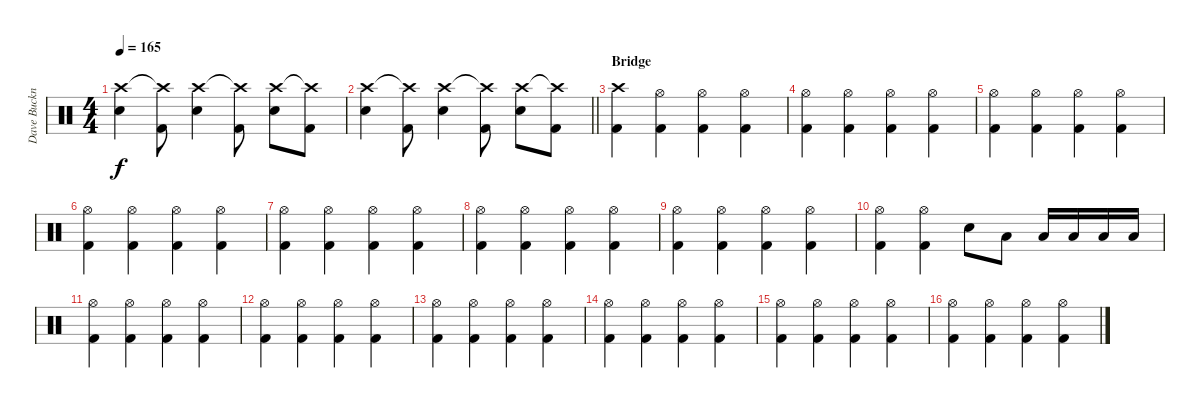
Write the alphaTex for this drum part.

\track ("Dave Buckner " "Dave Buckn") {instrument percussion}
\staff {score}
\articulation defaults
\ts (4 4)
\tempo 165
\clef neutral
\ks c
("Crash high (hit)" "Snare (hit) 2").4{dy f} ("Crash high (hit)"{t} "Kick (hit) 2").8 ("Crash high (hit)" "Snare (hit) 2").4 ("Crash high (hit)"{t} "Kick (hit) 2").8 ("Crash high (hit)" "Snare (hit) 2").8 ("Crash high (hit)"{t} "Kick (hit) 2").8 |
\barLineRight lightlight
("Crash high (hit)" "Snare (hit) 2").4 ("Crash high (hit)"{t} "Kick (hit) 2").8 ("Crash high (hit)" "Snare (hit) 2").4 ("Crash high (hit)"{t} "Kick (hit) 2").8 ("Crash high (hit)" "Snare (hit) 2").8 ("Crash high (hit)"{t} "Kick (hit) 2").8 |
\section ("" "Bridge")
("Crash high (hit)" "Kick (hit) 2").4 ("Hi-Hat (open)" "Kick (hit) 2").4 ("Hi-Hat (open)" "Kick (hit) 2").4 ("Hi-Hat (open)" "Kick (hit) 2").4 |
("Hi-Hat (open)" "Kick (hit) 2").4 ("Hi-Hat (open)" "Kick (hit) 2").4 ("Hi-Hat (open)" "Kick (hit) 2").4 ("Hi-Hat (open)" "Kick (hit) 2").4 |
("Hi-Hat (open)" "Kick (hit) 2").4 ("Hi-Hat (open)" "Kick (hit) 2").4 ("Hi-Hat (open)" "Kick (hit) 2").4 ("Hi-Hat (open)" "Kick (hit) 2").4 |
("Hi-Hat (open)" "Kick (hit) 2").4 ("Hi-Hat (open)" "Kick (hit) 2").4 ("Hi-Hat (open)" "Kick (hit) 2").4 ("Hi-Hat (open)" "Kick (hit) 2").4 |
("Hi-Hat (open)" "Kick (hit) 2").4 ("Hi-Hat (open)" "Kick (hit) 2").4 ("Hi-Hat (open)" "Kick (hit) 2").4 ("Hi-Hat (open)" "Kick (hit) 2").4 |
("Hi-Hat (open)" "Kick (hit) 2").4 ("Hi-Hat (open)" "Kick (hit) 2").4 ("Hi-Hat (open)" "Kick (hit) 2").4 ("Hi-Hat (open)" "Kick (hit) 2").4 |
("Hi-Hat (open)" "Kick (hit) 2").4 ("Hi-Hat (open)" "Kick (hit) 2").4 ("Hi-Hat (open)" "Kick (hit) 2").4 ("Hi-Hat (open)" "Kick (hit) 2").4 |
("Hi-Hat (open)" "Kick (hit) 2").4 ("Hi-Hat (open)" "Kick (hit) 2").4 "Snare (hit) 2".8 "Low Tom (hit)".8 "Low Tom (hit)".16 "Low Tom (hit)".16 "Low Tom (hit)".16 "Low Tom (hit)".16 |
("Hi-Hat (open)" "Kick (hit) 2").4 ("Hi-Hat (open)" "Kick (hit) 2").4 ("Hi-Hat (open)" "Kick (hit) 2").4 ("Hi-Hat (open)" "Kick (hit) 2").4 |
("Hi-Hat (open)" "Kick (hit) 2").4 ("Hi-Hat (open)" "Kick (hit) 2").4 ("Hi-Hat (open)" "Kick (hit) 2").4 ("Hi-Hat (open)" "Kick (hit) 2").4 |
("Hi-Hat (open)" "Kick (hit) 2").4 ("Hi-Hat (open)" "Kick (hit) 2").4 ("Hi-Hat (open)" "Kick (hit) 2").4 ("Hi-Hat (open)" "Kick (hit) 2").4 |
("Hi-Hat (open)" "Kick (hit) 2").4 ("Hi-Hat (open)" "Kick (hit) 2").4 ("Hi-Hat (open)" "Kick (hit) 2").4 ("Hi-Hat (open)" "Kick (hit) 2").4 |
("Hi-Hat (open)" "Kick (hit) 2").4 ("Hi-Hat (open)" "Kick (hit) 2").4 ("Hi-Hat (open)" "Kick (hit) 2").4 ("Hi-Hat (open)" "Kick (hit) 2").4 |
("Hi-Hat (open)" "Kick (hit) 2").4 ("Hi-Hat (open)" "Kick (hit) 2").4 ("Hi-Hat (open)" "Kick (hit) 2").4 ("Hi-Hat (open)" "Kick (hit) 2").4
